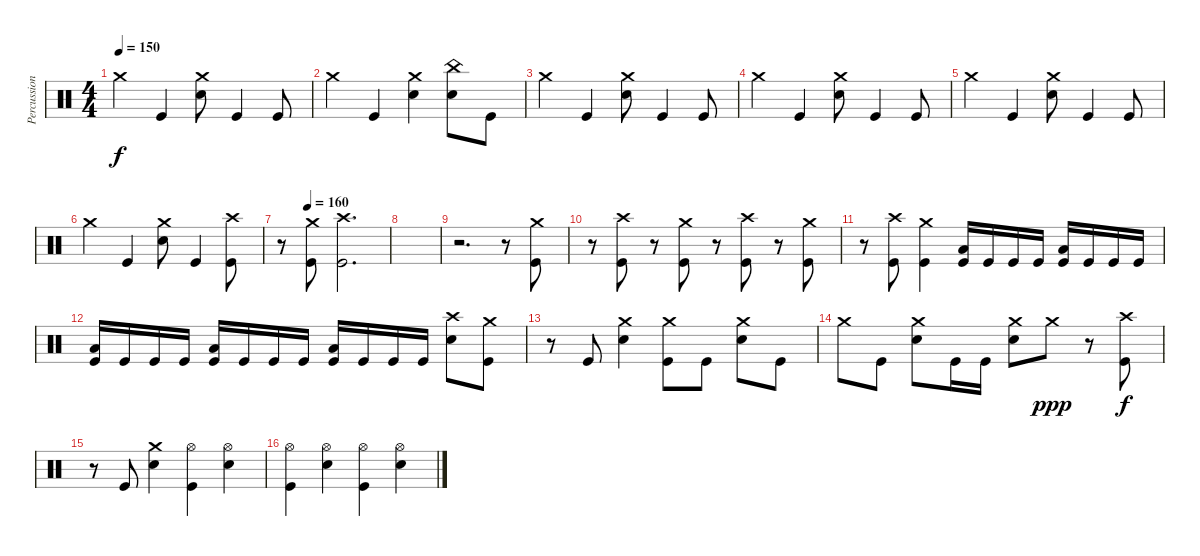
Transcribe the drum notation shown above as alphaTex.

\track ("Percussion" "Percussion") {instrument percussion}
\staff {score}
\articulation defaults
\ts (4 4)
\tempo 150
\clef neutral
\ks c "Crash medium (hit)".4{dy f} "Kick (hit)".4
("Crash medium (hit)" "Electric Snare (hit)").8 "Kick (hit)".4 "Kick (hit)".8 |
"Crash medium (hit)".4 "Kick (hit)".4 ("Crash medium (hit)" "Electric Snare (hit)").4 ("China (hit)" "Electric Snare (hit)").8 "Kick (hit)".8 |
"Crash medium (hit)".4 "Kick (hit)".4 ("Crash medium (hit)" "Electric Snare (hit)").8 "Kick (hit)".4 "Kick (hit)".8 |
"Crash medium (hit)".4 "Kick (hit)".4 ("Crash medium (hit)" "Electric Snare (hit)").8 "Kick (hit)".4 "Kick (hit)".8 |
"Crash medium (hit)".4 "Kick (hit)".4 ("Crash medium (hit)" "Electric Snare (hit)").8 "Kick (hit)".4 "Kick (hit)".8 |
"Crash medium (hit)".4 "Kick (hit)".4 ("Crash medium (hit)" "Electric Snare (hit)").8 "Kick (hit)".4 ("Crash high (hit)" "Kick (hit)").8 |
\tempo (160 0.25)
r.8 ("Crash medium (hit)" "Kick (hit)").8 ("Crash high (hit)" "Kick (hit)").2{d} |
|
r.2{d} r.8 ("Crash medium (hit)" "Kick (hit)").8 |
r.8 ("Crash high (hit)" "Kick (hit)").8 r.8 ("Crash medium (hit)" "Kick (hit)").8 r.8 ("Crash high (hit)" "Kick (hit)").8 r.8 ("Crash medium (hit)" "Kick (hit)").8 |
r.8 ("Crash high (hit)" "Kick (hit)").8 ("Crash medium (hit)" "Kick (hit)").4 ("Low Tom (hit)" "Kick (hit)").16 "Kick (hit)".16 "Kick (hit)".16 "Kick (hit)".16 ("Low Tom (hit)" "Kick (hit)").16 "Kick (hit)".16 "Kick (hit)".16 "Kick (hit)".16 |
("Low Tom (hit)" "Kick (hit)").16 "Kick (hit)".16 "Kick (hit)".16 "Kick (hit)".16 ("Low Tom (hit)" "Kick (hit)").16 "Kick (hit)".16 "Kick (hit)".16 "Kick (hit)".16 ("Low Tom (hit)" "Kick (hit)").16 "Kick (hit)".16 "Kick (hit)".16 "Kick (hit)".16 ("Crash high (hit)" "Electric Snare (hit)").8 ("Crash medium (hit)" "Kick (hit)").8 |
r.8 "Kick (hit)".8 ("Crash medium (hit)" "Electric Snare (hit)").4 ("Crash medium (hit)" "Kick (hit)").8 "Kick (hit)".8 ("Crash medium (hit)" "Electric Snare (hit)").8 "Kick (hit)".8 |
"Crash medium (hit)".8 "Kick (hit)".8 ("Crash medium (hit)" "Electric Snare (hit)").8 "Kick (hit)".16 "Kick (hit)".16 ("Crash medium (hit)" "Electric Snare (hit)").8 "Crash medium (hit)".8{dy ppp} r.8 ("Crash high (hit)" "Kick (hit)").8{dy f} |
r.8 "Kick (hit)".8 ("Crash medium (hit)" "Electric Snare (hit)").4 ("Hi-Hat (open)" "Kick (hit)").4 ("Hi-Hat (open)" "Electric Snare (hit)").4 |
("Hi-Hat (open)" "Kick (hit)").4 ("Hi-Hat (open)" "Electric Snare (hit)").4 ("Hi-Hat (open)" "Kick (hit)").4 ("Hi-Hat (open)" "Electric Snare (hit)").4
